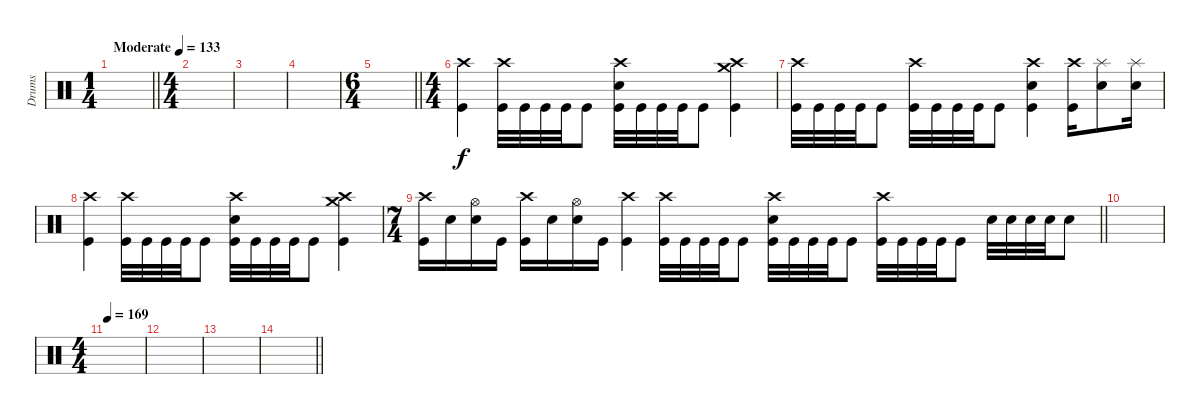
\track ("Drums" "Drums") {instrument percussion}
\staff
\articulation defaults
\ts (1 4)
\tempo (133 "Moderate")
\clef neutral
\barLineRight lightlight
\ks c
|
\ts (4 4)
|
|
|
\ts (6 4)
\barLineRight lightlight
|
\ts (4 4)
("Crash high (hit)" "Kick (hit)").4 ("Crash high (hit)" "Kick (hit)").32 "Kick (hit)".32 "Kick (hit)".32 "Kick (hit)".32 "Kick (hit)".8 ("Crash high (hit)" "Electric Snare (hit)" "Kick (hit)").32 "Kick (hit)".32 "Kick (hit)".32 "Kick (hit)".32 "Kick (hit)".8 ("Crash high (hit)" "Crash medium (hit)" "Kick (hit)").4 |
("Crash high (hit)" "Kick (hit)").32 "Kick (hit)".32 "Kick (hit)".32 "Kick (hit)".32 "Kick (hit)".8 ("Crash high (hit)" "Kick (hit)").32 "Kick (hit)".32 "Kick (hit)".32 "Kick (hit)".32 "Kick (hit)".8 ("Crash high (hit)" "Electric Snare (hit)" "Kick (hit)").4 ("Crash high (hit)" "Kick (hit)").16 ("Splash (hit)" "Electric Snare (hit)").8 ("Splash (hit)" "Electric Snare (hit)").16 |
("Crash high (hit)" "Kick (hit)").4 ("Crash high (hit)" "Kick (hit)").32 "Kick (hit)".32 "Kick (hit)".32 "Kick (hit)".32 "Kick (hit)".8 ("Crash high (hit)" "Electric Snare (hit)" "Kick (hit)").32 "Kick (hit)".32 "Kick (hit)".32 "Kick (hit)".32 "Kick (hit)".8 ("Crash high (hit)" "Crash medium (hit)" "Kick (hit)").4 |
\ts (7 4)
\barLineRight lightlight
("Crash high (hit)" "Kick (hit)").16 "Electric Snare (hit)".16 ("Hi-Hat (open)" "Electric Snare (hit)").16 "Kick (hit)".16 ("Crash high (hit)" "Kick (hit)").16 "Electric Snare (hit)".16 ("Hi-Hat (open)" "Electric Snare (hit)").16 "Kick (hit)".16 ("Crash high (hit)" "Kick (hit)").4 ("Crash high (hit)" "Kick (hit)").32 "Kick (hit)".32 "Kick (hit)".32 "Kick (hit)".32 "Kick (hit)".8 ("Crash high (hit)" "Electric Snare (hit)" "Kick (hit)").32 "Kick (hit)".32 "Kick (hit)".32 "Kick (hit)".32 "Kick (hit)".8 ("Crash high (hit)" "Kick (hit)").32 "Kick (hit)".32 "Kick (hit)".32 "Kick (hit)".32 "Kick (hit)".8 "Electric Snare (hit)".32 "Electric Snare (hit)".32 "Electric Snare (hit)".32 "Electric Snare (hit)".32 "Electric Snare (hit)".8 |
|
\ts (4 4)
\tempo 169
|
|
|
\barLineRight lightlight
